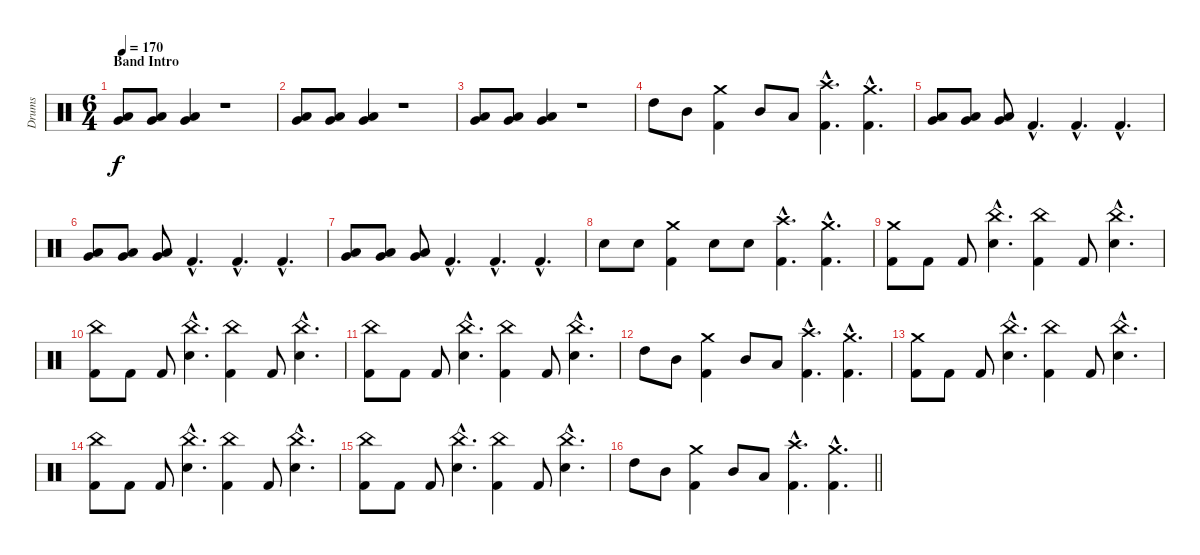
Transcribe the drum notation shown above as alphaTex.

\track ("Drums" "Drums") {instrument percussion}
\staff {score}
\articulation defaults
\ts (6 4)
\section ("" "Band Intro")
\tempo 170
\clef neutral
\ks c
("Low Floor Tom (hit)" "Very Low Tom (hit)").8{dy f} ("Low Floor Tom (hit)" "Very Low Tom (hit)").8 ("Low Floor Tom (hit)" "Very Low Tom (hit)").4 r.1 |
("Low Floor Tom (hit)" "Very Low Tom (hit)").8 ("Low Floor Tom (hit)" "Very Low Tom (hit)").8 ("Low Floor Tom (hit)" "Very Low Tom (hit)").4 r.1 |
("Low Floor Tom (hit)" "Very Low Tom (hit)").8 ("Low Floor Tom (hit)" "Very Low Tom (hit)").8 ("Low Floor Tom (hit)" "Very Low Tom (hit)").4 r.1 |
"High Tom (hit)".8 "Mid Tom (hit)".8 ("Crash medium (hit)" "Kick (hit) 2").4 "Mid Tom (hit)".8 "Low Tom (hit)".8 ("Crash high (hit)"{hac} "Kick (hit) 2"{hac}).4{d} ("Crash medium (hit)"{hac} "Kick (hit) 2"{hac}).4{d} |
("Low Floor Tom (hit)" "Very Low Tom (hit)").8 ("Low Floor Tom (hit)" "Very Low Tom (hit)").8 ("Low Floor Tom (hit)" "Very Low Tom (hit)").8 "Kick (hit) 2"{hac}.4{d} "Kick (hit) 2"{hac}.4{d} "Kick (hit) 2"{hac}.4{d} |
("Low Floor Tom (hit)" "Very Low Tom (hit)").8 ("Low Floor Tom (hit)" "Very Low Tom (hit)").8 ("Low Floor Tom (hit)" "Very Low Tom (hit)").8 "Kick (hit) 2"{hac}.4{d} "Kick (hit) 2"{hac}.4{d} "Kick (hit) 2"{hac}.4{d} |
("Low Floor Tom (hit)" "Very Low Tom (hit)").8 ("Low Floor Tom (hit)" "Very Low Tom (hit)").8 ("Low Floor Tom (hit)" "Very Low Tom (hit)").8 "Kick (hit) 2"{hac}.4{d} "Kick (hit) 2"{hac}.4{d} "Kick (hit) 2"{hac}.4{d} |
"Electric Snare (hit)".8 "Electric Snare (hit)".8 ("Crash medium (hit)" "Kick (hit) 2").4 "Electric Snare (hit)".8 "Electric Snare (hit)".8 ("Crash high (hit)"{hac} "Kick (hit) 2"{hac}).4{d} ("Crash medium (hit)"{hac} "Kick (hit) 2"{hac}).4{d} |
("Crash medium (hit)" "Kick (hit) 2").8 "Kick (hit) 2".8 "Kick (hit) 2".8 ("China (hit)"{hac} "Electric Snare (hit)"{hac}).4{d} ("China (hit)" "Kick (hit) 2").4 "Kick (hit) 2".8 ("China (hit)"{hac} "Electric Snare (hit)"{hac}).4{d} |
("China (hit)" "Kick (hit) 2").8 "Kick (hit) 2".8 "Kick (hit) 2".8 ("China (hit)"{hac} "Electric Snare (hit)"{hac}).4{d} ("China (hit)" "Kick (hit) 2").4 "Kick (hit) 2".8 ("China (hit)"{hac} "Electric Snare (hit)"{hac}).4{d} |
("China (hit)" "Kick (hit) 2").8 "Kick (hit) 2".8 "Kick (hit) 2".8 ("China (hit)"{hac} "Electric Snare (hit)"{hac}).4{d} ("China (hit)" "Kick (hit) 2").4 "Kick (hit) 2".8 ("China (hit)"{hac} "Electric Snare (hit)"{hac}).4{d} |
"High Tom (hit)".8 "Mid Tom (hit)".8 ("Crash medium (hit)" "Kick (hit) 2").4 "Mid Tom (hit)".8 "Low Tom (hit)".8 ("Crash high (hit)"{hac} "Kick (hit) 2"{hac}).4{d} ("Crash medium (hit)"{hac} "Kick (hit) 2"{hac}).4{d} |
("Crash medium (hit)" "Kick (hit) 2").8 "Kick (hit) 2".8 "Kick (hit) 2".8 ("China (hit)"{hac} "Electric Snare (hit)"{hac}).4{d} ("China (hit)" "Kick (hit) 2").4 "Kick (hit) 2".8 ("China (hit)"{hac} "Electric Snare (hit)"{hac}).4{d} |
("China (hit)" "Kick (hit) 2").8 "Kick (hit) 2".8 "Kick (hit) 2".8 ("China (hit)"{hac} "Electric Snare (hit)"{hac}).4{d} ("China (hit)" "Kick (hit) 2").4 "Kick (hit) 2".8 ("China (hit)"{hac} "Electric Snare (hit)"{hac}).4{d} |
("China (hit)" "Kick (hit) 2").8 "Kick (hit) 2".8 "Kick (hit) 2".8 ("China (hit)"{hac} "Electric Snare (hit)"{hac}).4{d} ("China (hit)" "Kick (hit) 2").4 "Kick (hit) 2".8 ("China (hit)"{hac} "Electric Snare (hit)"{hac}).4{d} |
\barLineRight lightlight "High Tom (hit)".8 "Mid Tom (hit)".8
("Crash medium (hit)" "Kick (hit) 2").4 "Mid Tom (hit)".8 "Low Tom (hit)".8 ("Crash high (hit)"{hac} "Kick (hit) 2"{hac}).4{d} ("Crash medium (hit)"{hac} "Kick (hit) 2"{hac}).4{d}
